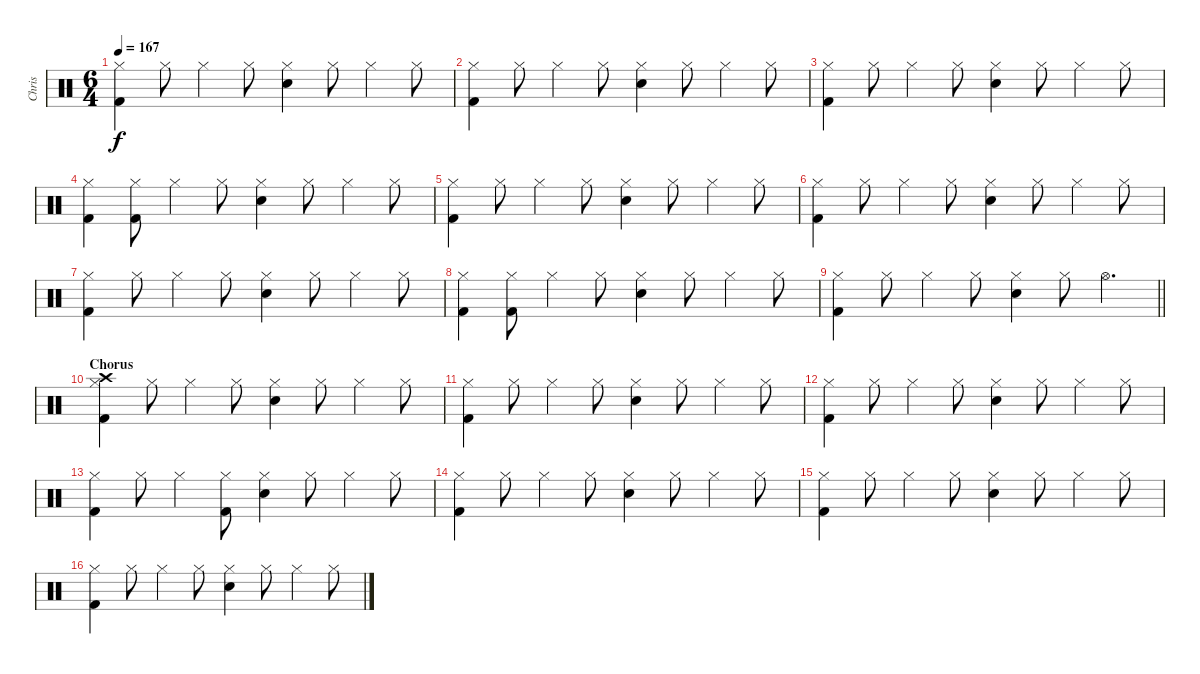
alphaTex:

\track ("Chris" "Chris") {instrument percussion}
\staff {score}
\articulation defaults
\ts (6 4)
\tempo 167
\clef neutral
\ks c
("Hi-Hat (closed)" "Kick (hit) 2").4{dy f} "Hi-Hat (closed)".8 "Hi-Hat (closed)".4 "Hi-Hat (closed)".8 ("Hi-Hat (closed)" "Electric Snare (hit)").4 "Hi-Hat (closed)".8 "Hi-Hat (closed)".4 "Hi-Hat (closed)".8 |
("Hi-Hat (closed)" "Kick (hit) 2").4 "Hi-Hat (closed)".8 "Hi-Hat (closed)".4 "Hi-Hat (closed)".8 ("Hi-Hat (closed)" "Electric Snare (hit)").4 "Hi-Hat (closed)".8 "Hi-Hat (closed)".4 "Hi-Hat (closed)".8 |
("Hi-Hat (closed)" "Kick (hit) 2").4 "Hi-Hat (closed)".8 "Hi-Hat (closed)".4 "Hi-Hat (closed)".8 ("Hi-Hat (closed)" "Electric Snare (hit)").4 "Hi-Hat (closed)".8 "Hi-Hat (closed)".4 "Hi-Hat (closed)".8 |
("Hi-Hat (closed)" "Kick (hit) 2").4 ("Hi-Hat (closed)" "Kick (hit) 2").8 "Hi-Hat (closed)".4 "Hi-Hat (closed)".8 ("Hi-Hat (closed)" "Electric Snare (hit)").4 "Hi-Hat (closed)".8 "Hi-Hat (closed)".4 "Hi-Hat (closed)".8 |
("Hi-Hat (closed)" "Kick (hit) 2").4 "Hi-Hat (closed)".8 "Hi-Hat (closed)".4 "Hi-Hat (closed)".8 ("Hi-Hat (closed)" "Electric Snare (hit)").4 "Hi-Hat (closed)".8 "Hi-Hat (closed)".4 "Hi-Hat (closed)".8 |
("Hi-Hat (closed)" "Kick (hit) 2").4 "Hi-Hat (closed)".8 "Hi-Hat (closed)".4 "Hi-Hat (closed)".8 ("Hi-Hat (closed)" "Electric Snare (hit)").4 "Hi-Hat (closed)".8 "Hi-Hat (closed)".4 "Hi-Hat (closed)".8 |
("Hi-Hat (closed)" "Kick (hit) 2").4 "Hi-Hat (closed)".8 "Hi-Hat (closed)".4 "Hi-Hat (closed)".8 ("Hi-Hat (closed)" "Electric Snare (hit)").4 "Hi-Hat (closed)".8 "Hi-Hat (closed)".4 "Hi-Hat (closed)".8 |
("Hi-Hat (closed)" "Kick (hit) 2").4 ("Hi-Hat (closed)" "Kick (hit) 2").8 "Hi-Hat (closed)".4 "Hi-Hat (closed)".8 ("Hi-Hat (closed)" "Electric Snare (hit)").4 "Hi-Hat (closed)".8 "Hi-Hat (closed)".4 "Hi-Hat (closed)".8 |
\barLineRight lightlight
("Hi-Hat (closed)" "Kick (hit) 2").4 "Hi-Hat (closed)".8 "Hi-Hat (closed)".4 "Hi-Hat (closed)".8 ("Hi-Hat (closed)" "Electric Snare (hit)").4 "Hi-Hat (closed)".8 "Hi-Hat (open)".4{d} |
\section ("" "Chorus")
("Crash high (hit)" "Hi-Hat (closed)" "Kick (hit) 2").4 "Hi-Hat (closed)".8 "Hi-Hat (closed)".4 "Hi-Hat (closed)".8 ("Hi-Hat (closed)" "Electric Snare (hit)").4 "Hi-Hat (closed)".8 "Hi-Hat (closed)".4 "Hi-Hat (closed)".8 |
("Hi-Hat (closed)" "Kick (hit) 2").4 "Hi-Hat (closed)".8 "Hi-Hat (closed)".4 "Hi-Hat (closed)".8 ("Hi-Hat (closed)" "Electric Snare (hit)").4 "Hi-Hat (closed)".8 "Hi-Hat (closed)".4 "Hi-Hat (closed)".8 |
("Hi-Hat (closed)" "Kick (hit) 2").4 "Hi-Hat (closed)".8 "Hi-Hat (closed)".4 "Hi-Hat (closed)".8 ("Hi-Hat (closed)" "Electric Snare (hit)").4 "Hi-Hat (closed)".8 "Hi-Hat (closed)".4 "Hi-Hat (closed)".8 |
("Hi-Hat (closed)" "Kick (hit) 2").4 "Hi-Hat (closed)".8 "Hi-Hat (closed)".4 ("Hi-Hat (closed)" "Kick (hit) 2").8 ("Hi-Hat (closed)" "Electric Snare (hit)").4 "Hi-Hat (closed)".8 "Hi-Hat (closed)".4 "Hi-Hat (closed)".8 |
("Hi-Hat (closed)" "Kick (hit) 2").4 "Hi-Hat (closed)".8 "Hi-Hat (closed)".4 "Hi-Hat (closed)".8 ("Hi-Hat (closed)" "Electric Snare (hit)").4 "Hi-Hat (closed)".8 "Hi-Hat (closed)".4 "Hi-Hat (closed)".8 |
("Hi-Hat (closed)" "Kick (hit) 2").4 "Hi-Hat (closed)".8 "Hi-Hat (closed)".4 "Hi-Hat (closed)".8 ("Hi-Hat (closed)" "Electric Snare (hit)").4 "Hi-Hat (closed)".8 "Hi-Hat (closed)".4 "Hi-Hat (closed)".8 |
("Hi-Hat (closed)" "Kick (hit) 2").4 "Hi-Hat (closed)".8 "Hi-Hat (closed)".4 "Hi-Hat (closed)".8 ("Hi-Hat (closed)" "Electric Snare (hit)").4 "Hi-Hat (closed)".8 "Hi-Hat (closed)".4 "Hi-Hat (closed)".8
